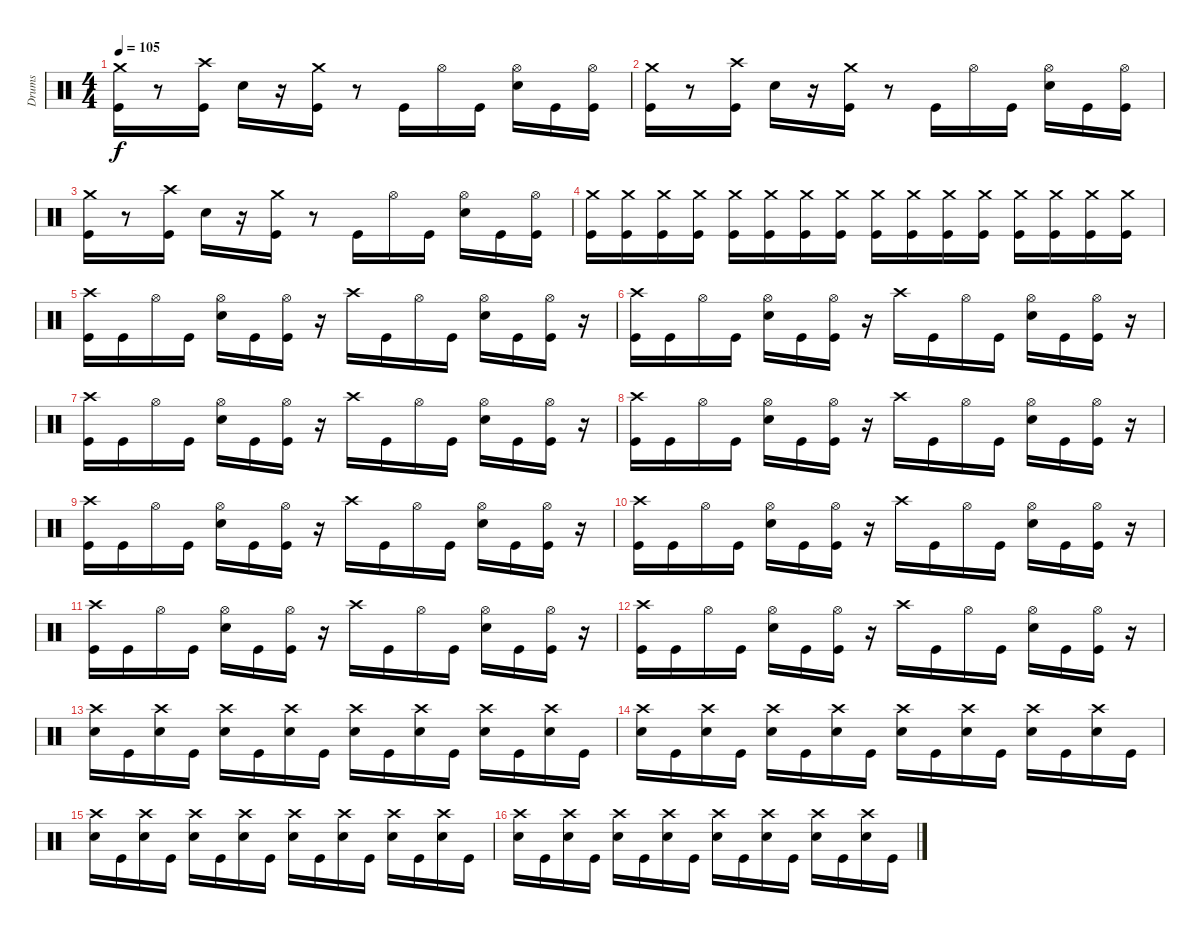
\track ("Drums" "Drums") {instrument percussion}
\staff {score}
\articulation defaults
\ts (4 4)
\tempo 105
\clef neutral
\ks c
("Crash medium (hit)" "Kick (hit)").16{dy f} r.8 ("Crash high (hit)" "Kick (hit)").16 "Electric Snare (hit)".16 r.16 ("Crash medium (hit)" "Kick (hit)").16 r.8 "Kick (hit)".16 "Hi-Hat (open)".16 "Kick (hit)".16 ("Hi-Hat (open)" "Electric Snare (hit)").16 "Kick (hit)".16 ("Hi-Hat (open)" "Kick (hit)").16 |
("Crash medium (hit)" "Kick (hit)").16 r.8 ("Crash high (hit)" "Kick (hit)").16 "Electric Snare (hit)".16 r.16 ("Crash medium (hit)" "Kick (hit)").16 r.8 "Kick (hit)".16 "Hi-Hat (open)".16 "Kick (hit)".16 ("Hi-Hat (open)" "Electric Snare (hit)").16 "Kick (hit)".16 ("Hi-Hat (open)" "Kick (hit)").16 |
("Crash medium (hit)" "Kick (hit)").16 r.8 ("Crash high (hit)" "Kick (hit)").16 "Electric Snare (hit)".16 r.16 ("Crash medium (hit)" "Kick (hit)").16 r.8 "Kick (hit)".16 "Hi-Hat (open)".16 "Kick (hit)".16 ("Hi-Hat (open)" "Electric Snare (hit)").16 "Kick (hit)".16 ("Hi-Hat (open)" "Kick (hit)").16 |
("Crash medium (hit)" "Kick (hit)").16 ("Crash medium (hit)" "Kick (hit)").16 ("Crash medium (hit)" "Kick (hit)").16 ("Crash medium (hit)" "Kick (hit)").16 ("Crash medium (hit)" "Kick (hit)").16 ("Crash medium (hit)" "Kick (hit)").16 ("Crash medium (hit)" "Kick (hit)").16 ("Crash medium (hit)" "Kick (hit)").16 ("Crash medium (hit)" "Kick (hit)").16 ("Crash medium (hit)" "Kick (hit)").16 ("Crash medium (hit)" "Kick (hit)").16 ("Crash medium (hit)" "Kick (hit)").16 ("Crash medium (hit)" "Kick (hit)").16 ("Crash medium (hit)" "Kick (hit)").16 ("Crash medium (hit)" "Kick (hit)").16 ("Crash medium (hit)" "Kick (hit)").16 |
("Crash high (hit)" "Kick (hit)").16 "Kick (hit)".16 "Hi-Hat (open)".16 "Kick (hit)".16 ("Hi-Hat (open)" "Electric Snare (hit)").16 "Kick (hit)".16 ("Hi-Hat (open)" "Kick (hit)").16 r.16 "Crash high (hit)".16 "Kick (hit)".16 "Hi-Hat (open)".16 "Kick (hit)".16 ("Hi-Hat (open)" "Electric Snare (hit)").16 "Kick (hit)".16 ("Hi-Hat (open)" "Kick (hit)").16 r.16 |
("Crash high (hit)" "Kick (hit)").16 "Kick (hit)".16 "Hi-Hat (open)".16 "Kick (hit)".16 ("Hi-Hat (open)" "Electric Snare (hit)").16 "Kick (hit)".16 ("Hi-Hat (open)" "Kick (hit)").16 r.16 "Crash high (hit)".16 "Kick (hit)".16 "Hi-Hat (open)".16 "Kick (hit)".16 ("Hi-Hat (open)" "Electric Snare (hit)").16 "Kick (hit)".16 ("Hi-Hat (open)" "Kick (hit)").16 r.16 |
("Crash high (hit)" "Kick (hit)").16 "Kick (hit)".16 "Hi-Hat (open)".16 "Kick (hit)".16 ("Hi-Hat (open)" "Electric Snare (hit)").16 "Kick (hit)".16 ("Hi-Hat (open)" "Kick (hit)").16 r.16 "Crash high (hit)".16 "Kick (hit)".16 "Hi-Hat (open)".16 "Kick (hit)".16 ("Hi-Hat (open)" "Electric Snare (hit)").16 "Kick (hit)".16 ("Hi-Hat (open)" "Kick (hit)").16 r.16 |
("Crash high (hit)" "Kick (hit)").16 "Kick (hit)".16 "Hi-Hat (open)".16 "Kick (hit)".16 ("Hi-Hat (open)" "Electric Snare (hit)").16 "Kick (hit)".16 ("Hi-Hat (open)" "Kick (hit)").16 r.16 "Crash high (hit)".16 "Kick (hit)".16 "Hi-Hat (open)".16 "Kick (hit)".16 ("Hi-Hat (open)" "Electric Snare (hit)").16 "Kick (hit)".16 ("Hi-Hat (open)" "Kick (hit)").16 r.16 |
("Crash high (hit)" "Kick (hit)").16 "Kick (hit)".16 "Hi-Hat (open)".16 "Kick (hit)".16 ("Hi-Hat (open)" "Electric Snare (hit)").16 "Kick (hit)".16 ("Hi-Hat (open)" "Kick (hit)").16 r.16 "Crash high (hit)".16 "Kick (hit)".16 "Hi-Hat (open)".16 "Kick (hit)".16 ("Hi-Hat (open)" "Electric Snare (hit)").16 "Kick (hit)".16 ("Hi-Hat (open)" "Kick (hit)").16 r.16 |
("Crash high (hit)" "Kick (hit)").16 "Kick (hit)".16 "Hi-Hat (open)".16 "Kick (hit)".16 ("Hi-Hat (open)" "Electric Snare (hit)").16 "Kick (hit)".16 ("Hi-Hat (open)" "Kick (hit)").16 r.16 "Crash high (hit)".16 "Kick (hit)".16 "Hi-Hat (open)".16 "Kick (hit)".16 ("Hi-Hat (open)" "Electric Snare (hit)").16 "Kick (hit)".16 ("Hi-Hat (open)" "Kick (hit)").16 r.16 |
("Crash high (hit)" "Kick (hit)").16 "Kick (hit)".16 "Hi-Hat (open)".16 "Kick (hit)".16 ("Hi-Hat (open)" "Electric Snare (hit)").16 "Kick (hit)".16 ("Hi-Hat (open)" "Kick (hit)").16 r.16 "Crash high (hit)".16 "Kick (hit)".16 "Hi-Hat (open)".16 "Kick (hit)".16 ("Hi-Hat (open)" "Electric Snare (hit)").16 "Kick (hit)".16 ("Hi-Hat (open)" "Kick (hit)").16 r.16 |
("Crash high (hit)" "Kick (hit)").16 "Kick (hit)".16 "Hi-Hat (open)".16 "Kick (hit)".16 ("Hi-Hat (open)" "Electric Snare (hit)").16 "Kick (hit)".16 ("Hi-Hat (open)" "Kick (hit)").16 r.16 "Crash high (hit)".16 "Kick (hit)".16 "Hi-Hat (open)".16 "Kick (hit)".16 ("Hi-Hat (open)" "Electric Snare (hit)").16 "Kick (hit)".16 ("Hi-Hat (open)" "Kick (hit)").16 r.16 |
("Crash high (hit)" "Electric Snare (hit)").16 "Kick (hit)".16 ("Crash high (hit)" "Electric Snare (hit)").16 "Kick (hit)".16 ("Crash high (hit)" "Electric Snare (hit)").16 "Kick (hit)".16 ("Crash high (hit)" "Electric Snare (hit)").16 "Kick (hit)".16 ("Crash high (hit)" "Electric Snare (hit)").16 "Kick (hit)".16 ("Crash high (hit)" "Electric Snare (hit)").16 "Kick (hit)".16 ("Crash high (hit)" "Electric Snare (hit)").16 "Kick (hit)".16 ("Crash high (hit)" "Electric Snare (hit)").16 "Kick (hit)".16 |
("Crash high (hit)" "Electric Snare (hit)").16 "Kick (hit)".16 ("Crash high (hit)" "Electric Snare (hit)").16 "Kick (hit)".16 ("Crash high (hit)" "Electric Snare (hit)").16 "Kick (hit)".16 ("Crash high (hit)" "Electric Snare (hit)").16 "Kick (hit)".16 ("Crash high (hit)" "Electric Snare (hit)").16 "Kick (hit)".16 ("Crash high (hit)" "Electric Snare (hit)").16 "Kick (hit)".16 ("Crash high (hit)" "Electric Snare (hit)").16 "Kick (hit)".16 ("Crash high (hit)" "Electric Snare (hit)").16 "Kick (hit)".16 |
("Crash high (hit)" "Electric Snare (hit)").16 "Kick (hit)".16 ("Crash high (hit)" "Electric Snare (hit)").16 "Kick (hit)".16 ("Crash high (hit)" "Electric Snare (hit)").16 "Kick (hit)".16 ("Crash high (hit)" "Electric Snare (hit)").16 "Kick (hit)".16 ("Crash high (hit)" "Electric Snare (hit)").16 "Kick (hit)".16 ("Crash high (hit)" "Electric Snare (hit)").16 "Kick (hit)".16 ("Crash high (hit)" "Electric Snare (hit)").16 "Kick (hit)".16 ("Crash high (hit)" "Electric Snare (hit)").16 "Kick (hit)".16 |
("Crash high (hit)" "Electric Snare (hit)").16 "Kick (hit)".16 ("Crash high (hit)" "Electric Snare (hit)").16 "Kick (hit)".16 ("Crash high (hit)" "Electric Snare (hit)").16 "Kick (hit)".16 ("Crash high (hit)" "Electric Snare (hit)").16 "Kick (hit)".16 ("Crash high (hit)" "Electric Snare (hit)").16 "Kick (hit)".16 ("Crash high (hit)" "Electric Snare (hit)").16 "Kick (hit)".16 ("Crash high (hit)" "Electric Snare (hit)").16 "Kick (hit)".16 ("Crash high (hit)" "Electric Snare (hit)").16 "Kick (hit)".16
